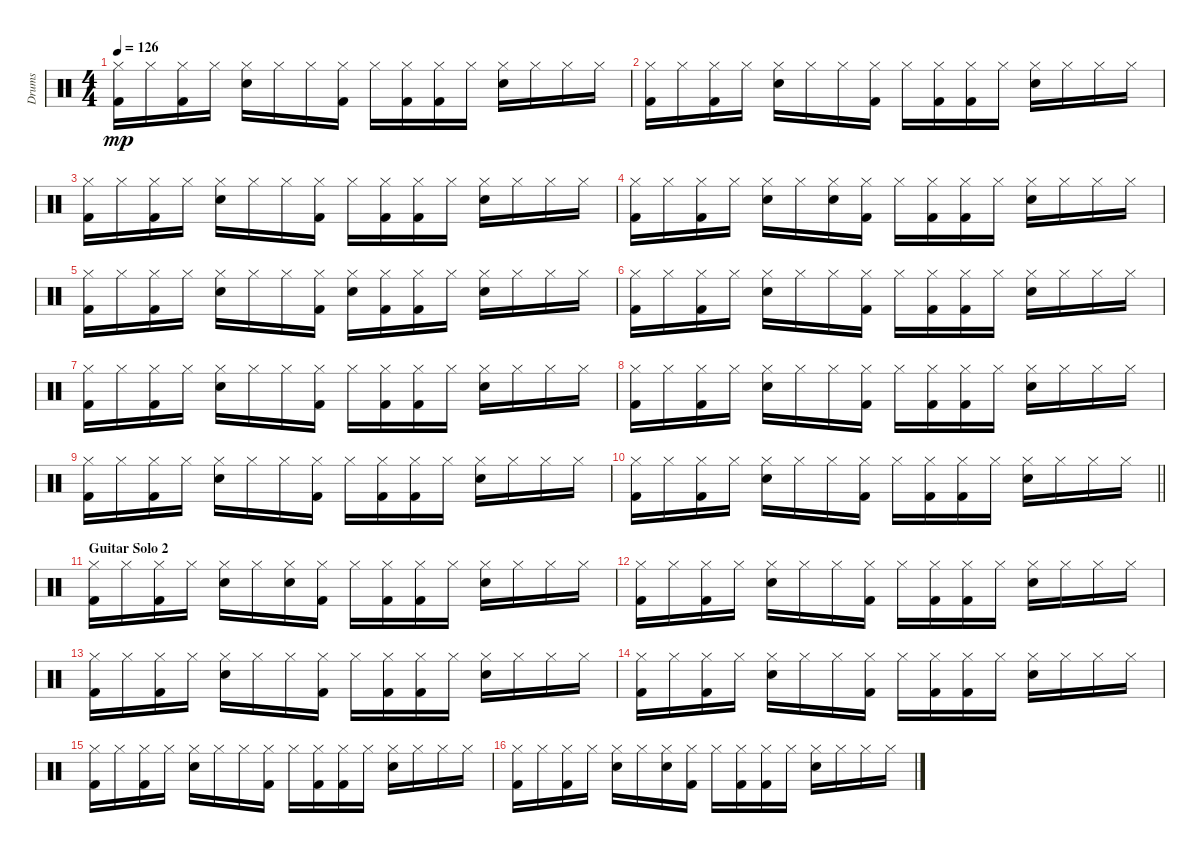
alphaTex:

\track ("Drums" "Drums") {instrument percussion}
\staff {score}
\articulation defaults
\ts (4 4)
\tempo 126
\clef neutral
\ks c
("Hi-Hat (closed)" "Kick (hit) 2").16{dy mp} "Hi-Hat (closed)".16 ("Hi-Hat (closed)" "Kick (hit) 2").16 "Hi-Hat (closed)".16 ("Hi-Hat (closed)" "Snare (hit) 2").16 "Hi-Hat (closed)".16 "Hi-Hat (closed)".16 ("Hi-Hat (closed)" "Kick (hit) 2").16 "Hi-Hat (closed)".16 ("Hi-Hat (closed)" "Kick (hit) 2").16 ("Hi-Hat (closed)" "Kick (hit) 2").16 "Hi-Hat (closed)".16 ("Hi-Hat (closed)" "Snare (hit) 2").16 "Hi-Hat (closed)".16 "Hi-Hat (closed)".16 "Hi-Hat (closed)".16 |
("Hi-Hat (closed)" "Kick (hit) 2").16 "Hi-Hat (closed)".16 ("Hi-Hat (closed)" "Kick (hit) 2").16 "Hi-Hat (closed)".16 ("Hi-Hat (closed)" "Snare (hit) 2").16 "Hi-Hat (closed)".16 "Hi-Hat (closed)".16 ("Hi-Hat (closed)" "Kick (hit) 2").16 "Hi-Hat (closed)".16 ("Hi-Hat (closed)" "Kick (hit) 2").16 ("Hi-Hat (closed)" "Kick (hit) 2").16 "Hi-Hat (closed)".16 ("Hi-Hat (closed)" "Snare (hit) 2").16 "Hi-Hat (closed)".16 "Hi-Hat (closed)".16 "Hi-Hat (closed)".16 |
("Hi-Hat (closed)" "Kick (hit) 2").16 "Hi-Hat (closed)".16 ("Hi-Hat (closed)" "Kick (hit) 2").16 "Hi-Hat (closed)".16 ("Hi-Hat (closed)" "Snare (hit) 2").16 "Hi-Hat (closed)".16 "Hi-Hat (closed)".16 ("Hi-Hat (closed)" "Kick (hit) 2").16 "Hi-Hat (closed)".16 ("Hi-Hat (closed)" "Kick (hit) 2").16 ("Hi-Hat (closed)" "Kick (hit) 2").16 "Hi-Hat (closed)".16 ("Hi-Hat (closed)" "Snare (hit) 2").16 "Hi-Hat (closed)".16 "Hi-Hat (closed)".16 "Hi-Hat (closed)".16 |
("Hi-Hat (closed)" "Kick (hit) 2").16 "Hi-Hat (closed)".16 ("Hi-Hat (closed)" "Kick (hit) 2").16 "Hi-Hat (closed)".16 ("Hi-Hat (closed)" "Snare (hit) 2").16 "Hi-Hat (closed)".16 ("Hi-Hat (closed)" "Snare (hit) 2").16 ("Hi-Hat (closed)" "Kick (hit) 2").16 "Hi-Hat (closed)".16 ("Hi-Hat (closed)" "Kick (hit) 2").16 ("Hi-Hat (closed)" "Kick (hit) 2").16 "Hi-Hat (closed)".16 ("Hi-Hat (closed)" "Snare (hit) 2").16 "Hi-Hat (closed)".16 "Hi-Hat (closed)".16 "Hi-Hat (closed)".16 |
("Hi-Hat (closed)" "Kick (hit) 2").16 "Hi-Hat (closed)".16 ("Hi-Hat (closed)" "Kick (hit) 2").16 "Hi-Hat (closed)".16 ("Hi-Hat (closed)" "Snare (hit) 2").16 "Hi-Hat (closed)".16 "Hi-Hat (closed)".16 ("Hi-Hat (closed)" "Kick (hit) 2").16 ("Hi-Hat (closed)" "Snare (hit) 2").16 ("Hi-Hat (closed)" "Kick (hit) 2").16 ("Hi-Hat (closed)" "Kick (hit) 2").16 "Hi-Hat (closed)".16 ("Hi-Hat (closed)" "Snare (hit) 2").16 "Hi-Hat (closed)".16 "Hi-Hat (closed)".16 "Hi-Hat (closed)".16 |
("Hi-Hat (closed)" "Kick (hit) 2").16 "Hi-Hat (closed)".16 ("Hi-Hat (closed)" "Kick (hit) 2").16 "Hi-Hat (closed)".16 ("Hi-Hat (closed)" "Snare (hit) 2").16 "Hi-Hat (closed)".16 "Hi-Hat (closed)".16 ("Hi-Hat (closed)" "Kick (hit) 2").16 "Hi-Hat (closed)".16 ("Hi-Hat (closed)" "Kick (hit) 2").16 ("Hi-Hat (closed)" "Kick (hit) 2").16 "Hi-Hat (closed)".16 ("Hi-Hat (closed)" "Snare (hit) 2").16 "Hi-Hat (closed)".16 "Hi-Hat (closed)".16 "Hi-Hat (closed)".16 |
("Hi-Hat (closed)" "Kick (hit) 2").16 "Hi-Hat (closed)".16 ("Hi-Hat (closed)" "Kick (hit) 2").16 "Hi-Hat (closed)".16 ("Hi-Hat (closed)" "Snare (hit) 2").16 "Hi-Hat (closed)".16 "Hi-Hat (closed)".16 ("Hi-Hat (closed)" "Kick (hit) 2").16 "Hi-Hat (closed)".16 ("Hi-Hat (closed)" "Kick (hit) 2").16 ("Hi-Hat (closed)" "Kick (hit) 2").16 "Hi-Hat (closed)".16 ("Hi-Hat (closed)" "Snare (hit) 2").16 "Hi-Hat (closed)".16 "Hi-Hat (closed)".16 "Hi-Hat (closed)".16 |
("Hi-Hat (closed)" "Kick (hit) 2").16 "Hi-Hat (closed)".16 ("Hi-Hat (closed)" "Kick (hit) 2").16 "Hi-Hat (closed)".16 ("Hi-Hat (closed)" "Snare (hit) 2").16 "Hi-Hat (closed)".16 "Hi-Hat (closed)".16 ("Hi-Hat (closed)" "Kick (hit) 2").16 "Hi-Hat (closed)".16 ("Hi-Hat (closed)" "Kick (hit) 2").16 ("Hi-Hat (closed)" "Kick (hit) 2").16 "Hi-Hat (closed)".16 ("Hi-Hat (closed)" "Snare (hit) 2").16 "Hi-Hat (closed)".16 "Hi-Hat (closed)".16 "Hi-Hat (closed)".16 |
("Hi-Hat (closed)" "Kick (hit) 2").16 "Hi-Hat (closed)".16 ("Hi-Hat (closed)" "Kick (hit) 2").16 "Hi-Hat (closed)".16 ("Hi-Hat (closed)" "Snare (hit) 2").16 "Hi-Hat (closed)".16 "Hi-Hat (closed)".16 ("Hi-Hat (closed)" "Kick (hit) 2").16 "Hi-Hat (closed)".16 ("Hi-Hat (closed)" "Kick (hit) 2").16 ("Hi-Hat (closed)" "Kick (hit) 2").16 "Hi-Hat (closed)".16 ("Hi-Hat (closed)" "Snare (hit) 2").16 "Hi-Hat (closed)".16 "Hi-Hat (closed)".16 "Hi-Hat (closed)".16 |
\barLineRight lightlight
("Hi-Hat (closed)" "Kick (hit) 2").16 "Hi-Hat (closed)".16 ("Hi-Hat (closed)" "Kick (hit) 2").16 "Hi-Hat (closed)".16 ("Hi-Hat (closed)" "Snare (hit) 2").16 "Hi-Hat (closed)".16 "Hi-Hat (closed)".16 ("Hi-Hat (closed)" "Kick (hit) 2").16 "Hi-Hat (closed)".16 ("Hi-Hat (closed)" "Kick (hit) 2").16 ("Hi-Hat (closed)" "Kick (hit) 2").16 "Hi-Hat (closed)".16 ("Hi-Hat (closed)" "Snare (hit) 2").16 "Hi-Hat (closed)".16 "Hi-Hat (closed)".16 "Hi-Hat (closed)".16 |
\section ("" "Guitar Solo 2")
("Hi-Hat (closed)" "Kick (hit) 2").16 "Hi-Hat (closed)".16 ("Hi-Hat (closed)" "Kick (hit) 2").16 "Hi-Hat (closed)".16 ("Hi-Hat (closed)" "Snare (hit) 2").16 "Hi-Hat (closed)".16 ("Hi-Hat (closed)" "Snare (hit) 2").16 ("Hi-Hat (closed)" "Kick (hit) 2").16 "Hi-Hat (closed)".16 ("Hi-Hat (closed)" "Kick (hit) 2").16 ("Hi-Hat (closed)" "Kick (hit) 2").16 "Hi-Hat (closed)".16 ("Hi-Hat (closed)" "Snare (hit) 2").16 "Hi-Hat (closed)".16 "Hi-Hat (closed)".16 "Hi-Hat (closed)".16 |
("Hi-Hat (closed)" "Kick (hit) 2").16 "Hi-Hat (closed)".16 ("Hi-Hat (closed)" "Kick (hit) 2").16 "Hi-Hat (closed)".16 ("Hi-Hat (closed)" "Snare (hit) 2").16 "Hi-Hat (closed)".16 "Hi-Hat (closed)".16 ("Hi-Hat (closed)" "Kick (hit) 2").16 "Hi-Hat (closed)".16 ("Hi-Hat (closed)" "Kick (hit) 2").16 ("Hi-Hat (closed)" "Kick (hit) 2").16 "Hi-Hat (closed)".16 ("Hi-Hat (closed)" "Snare (hit) 2").16 "Hi-Hat (closed)".16 "Hi-Hat (closed)".16 "Hi-Hat (closed)".16 |
("Hi-Hat (closed)" "Kick (hit) 2").16 "Hi-Hat (closed)".16 ("Hi-Hat (closed)" "Kick (hit) 2").16 "Hi-Hat (closed)".16 ("Hi-Hat (closed)" "Snare (hit) 2").16 "Hi-Hat (closed)".16 "Hi-Hat (closed)".16 ("Hi-Hat (closed)" "Kick (hit) 2").16 "Hi-Hat (closed)".16 ("Hi-Hat (closed)" "Kick (hit) 2").16 ("Hi-Hat (closed)" "Kick (hit) 2").16 "Hi-Hat (closed)".16 ("Hi-Hat (closed)" "Snare (hit) 2").16 "Hi-Hat (closed)".16 "Hi-Hat (closed)".16 "Hi-Hat (closed)".16 |
("Hi-Hat (closed)" "Kick (hit) 2").16 "Hi-Hat (closed)".16 ("Hi-Hat (closed)" "Kick (hit) 2").16 "Hi-Hat (closed)".16 ("Hi-Hat (closed)" "Snare (hit) 2").16 "Hi-Hat (closed)".16 "Hi-Hat (closed)".16 ("Hi-Hat (closed)" "Kick (hit) 2").16 "Hi-Hat (closed)".16 ("Hi-Hat (closed)" "Kick (hit) 2").16 ("Hi-Hat (closed)" "Kick (hit) 2").16 "Hi-Hat (closed)".16 ("Hi-Hat (closed)" "Snare (hit) 2").16 "Hi-Hat (closed)".16 "Hi-Hat (closed)".16 "Hi-Hat (closed)".16 |
("Hi-Hat (closed)" "Kick (hit) 2").16 "Hi-Hat (closed)".16 ("Hi-Hat (closed)" "Kick (hit) 2").16 "Hi-Hat (closed)".16 ("Hi-Hat (closed)" "Snare (hit) 2").16 "Hi-Hat (closed)".16 "Hi-Hat (closed)".16 ("Hi-Hat (closed)" "Kick (hit) 2").16 "Hi-Hat (closed)".16 ("Hi-Hat (closed)" "Kick (hit) 2").16 ("Hi-Hat (closed)" "Kick (hit) 2").16 "Hi-Hat (closed)".16 ("Hi-Hat (closed)" "Snare (hit) 2").16 "Hi-Hat (closed)".16 "Hi-Hat (closed)".16 "Hi-Hat (closed)".16 |
("Hi-Hat (closed)" "Kick (hit) 2").16 "Hi-Hat (closed)".16 ("Hi-Hat (closed)" "Kick (hit) 2").16 "Hi-Hat (closed)".16 ("Hi-Hat (closed)" "Snare (hit) 2").16 "Hi-Hat (closed)".16 ("Hi-Hat (closed)" "Snare (hit) 2").16 ("Hi-Hat (closed)" "Kick (hit) 2").16 "Hi-Hat (closed)".16 ("Hi-Hat (closed)" "Kick (hit) 2").16 ("Hi-Hat (closed)" "Kick (hit) 2").16 "Hi-Hat (closed)".16 ("Hi-Hat (closed)" "Snare (hit) 2").16 "Hi-Hat (closed)".16 "Hi-Hat (closed)".16 "Hi-Hat (closed)".16
